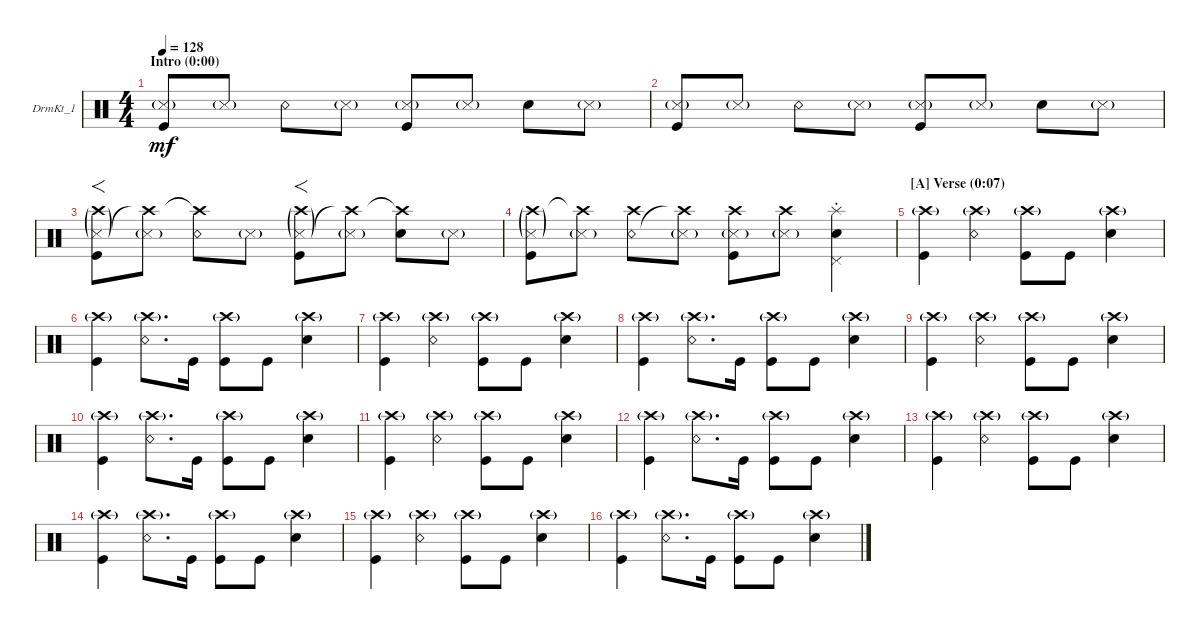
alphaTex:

\defaultSystemsLayout 4
\bracketExtendMode groupsimilarinstruments
\firstSystemTrackNameOrientation horizontal
\otherSystemsTrackNameOrientation horizontal
\track ("DrmKt_1" "DrmKt_1") {instrument percussion}
\staff {score}
\articulation defaults
\ts (4 4)
\section ("" "Intro (0:00)")
\tempo 128
\clef neutral
\scale
0.375465
\ks c
("Snare (side stick) 3"{g} "Kick (hit)").8{dy mf} "Snare (side stick) 3"{g}.8 "Snare (rim shot)".8 "Snare (side stick) 3"{g}.8 ("Snare (side stick) 3"{g} "Kick (hit)").8 "Snare (side stick) 3"{g}.8 "Snare (hit) 2".8 "Snare (side stick) 3"{g}.8 |
\scale
0.208178 ("Snare (side stick) 3"{g} "Kick (hit)").8 "Snare (side stick) 3"{g}.8 "Snare (rim shot)".8 "Snare (side stick) 3"{g}.8 ("Snare (side stick) 3"{g} "Kick (hit)").8 "Snare (side stick) 3"{g}.8 "Snare (hit) 2".8 "Snare (side stick) 3"{g}.8 |
\scale
0.208178 ("Crash high (hit)"{g} "Snare (side stick) 3"{g} "Kick (hit)").8{f} ("Snare (side stick) 3"{g} "Crash high (hit)"{t}).8 ("Snare (rim shot)" "Crash high (hit)"{t}).8 "Snare (side stick) 3"{g}.8 ("Crash high (hit)"{g} "Snare (side stick) 3"{g} "Kick (hit)").8{f} ("Snare (side stick) 3"{g} "Crash high (hit)"{t}).8 ("Snare (hit) 2" "Crash high (hit)"{t}).8 "Snare (side stick) 3"{g}.8 |
\scale
0.208178 ("Crash high (hit)"{g} "Snare (side stick) 3"{g} "Kick (hit)").8 ("Crash high (hit)"{t} "Snare (side stick) 3"{g}).8 ("Snare (rim shot)" "Crash high (hit)").8 ("Crash high (hit)"{t} "Snare (side stick) 3"{g}).8 ("Crash high (hit)" "Snare (side stick) 3"{g} "Kick (hit)").8 ("Crash high (hit)" "Snare (side stick) 3"{g}).8 ("Snare (hit) 2" "Pedal Hi-Hat (hit)" "Splash (hit)"{st}).4 |
\section ("A" "Verse (0:07)")
\scale
0.25 ("Kick (hit)" "Crash high (hit)"{g}).4 ("Snare (rim shot)" "Crash high (hit)"{g}).4 ("Kick (hit)" "Crash high (hit)"{g}).8 "Kick (hit)".8 ("Snare (hit) 2" "Crash high (hit)"{g}).4 |
\scale
0.25 ("Kick (hit)" "Crash high (hit)"{g}).4 ("Snare (rim shot)" "Crash high (hit)"{g}).8{d} "Kick (hit)".16 ("Kick (hit)" "Crash high (hit)"{g}).8 "Kick (hit)".8 ("Snare (hit) 2" "Crash high (hit)"{g}).4 |
\scale
0.25 ("Kick (hit)" "Crash high (hit)"{g}).4 ("Snare (rim shot)" "Crash high (hit)"{g}).4 ("Kick (hit)" "Crash high (hit)"{g}).8 "Kick (hit)".8 ("Snare (hit) 2" "Crash high (hit)"{g}).4 |
\scale
0.25 ("Kick (hit)" "Crash high (hit)"{g}).4 ("Snare (rim shot)" "Crash high (hit)"{g}).8{d} "Kick (hit)".16 ("Kick (hit)" "Crash high (hit)"{g}).8 "Kick (hit)".8 ("Snare (hit) 2" "Crash high (hit)"{g}).4 |
\scale
0.25 ("Kick (hit)" "Crash high (hit)"{g}).4 ("Snare (rim shot)" "Crash high (hit)"{g}).4 ("Kick (hit)" "Crash high (hit)"{g}).8 "Kick (hit)".8 ("Snare (hit) 2" "Crash high (hit)"{g}).4 |
\scale
0.25 ("Kick (hit)" "Crash high (hit)"{g}).4 ("Snare (rim shot)" "Crash high (hit)"{g}).8{d} "Kick (hit)".16 ("Kick (hit)" "Crash high (hit)"{g}).8 "Kick (hit)".8 ("Snare (hit) 2" "Crash high (hit)"{g}).4 |
\scale
0.25 ("Kick (hit)" "Crash high (hit)"{g}).4 ("Snare (rim shot)" "Crash high (hit)"{g}).4 ("Kick (hit)" "Crash high (hit)"{g}).8 "Kick (hit)".8 ("Snare (hit) 2" "Crash high (hit)"{g}).4 |
\scale
0.25 ("Kick (hit)" "Crash high (hit)"{g}).4 ("Snare (rim shot)" "Crash high (hit)"{g}).8{d} "Kick (hit)".16 ("Kick (hit)" "Crash high (hit)"{g}).8 "Kick (hit)".8 ("Snare (hit) 2" "Crash high (hit)"{g}).4 |
\scale
0.25 ("Kick (hit)" "Crash high (hit)"{g}).4 ("Snare (rim shot)" "Crash high (hit)"{g}).4 ("Kick (hit)" "Crash high (hit)"{g}).8 "Kick (hit)".8 ("Snare (hit) 2" "Crash high (hit)"{g}).4 |
\scale
0.25 ("Kick (hit)" "Crash high (hit)"{g}).4 ("Snare (rim shot)" "Crash high (hit)"{g}).8{d} "Kick (hit)".16 ("Kick (hit)" "Crash high (hit)"{g}).8 "Kick (hit)".8 ("Snare (hit) 2" "Crash high (hit)"{g}).4 |
\scale
0.25 ("Kick (hit)" "Crash high (hit)"{g}).4 ("Snare (rim shot)" "Crash high (hit)"{g}).4 ("Kick (hit)" "Crash high (hit)"{g}).8 "Kick (hit)".8 ("Snare (hit) 2" "Crash high (hit)"{g}).4 |
\scale
0.25 ("Kick (hit)" "Crash high (hit)"{g}).4 ("Snare (rim shot)" "Crash high (hit)"{g}).8{d} "Kick (hit)".16 ("Kick (hit)" "Crash high (hit)"{g}).8 "Kick (hit)".8 ("Snare (hit) 2" "Crash high (hit)"{g}).4
